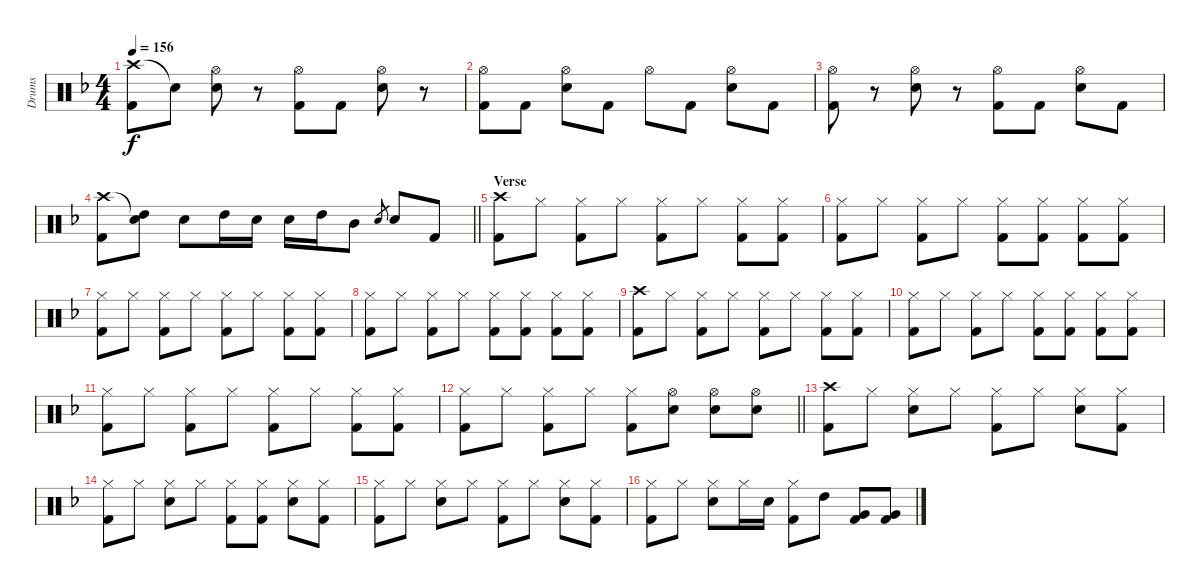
\track ("Drums" "Drums") {instrument percussion}
\staff {score}
\articulation defaults
\ts (4 4)
\tempo 156
\clef neutral
\ks f
("Crash high (hit)" "Kick (hit) 2").8{dy f} "Snare (hit)"{t}.8 ("Hi-Hat (open)" "Snare (hit) 2").8 r.8 ("Hi-Hat (open)" "Kick (hit) 2").8 "Kick (hit) 2".8 ("Hi-Hat (open)" "Snare (hit) 2").8 r.8 |
("Hi-Hat (open)" "Kick (hit) 2").8 "Kick (hit) 2".8 ("Hi-Hat (open)" "Snare (hit) 2").8 "Kick (hit) 2".8 "Hi-Hat (open)".8 "Kick (hit) 2".8 ("Hi-Hat (open)" "Snare (hit) 2").8 "Kick (hit) 2".8 |
("Hi-Hat (open)" "Kick (hit) 2").8 r.8 ("Hi-Hat (open)" "Snare (hit) 2").8 r.8 ("Hi-Hat (open)" "Kick (hit) 2").8 "Kick (hit) 2".8 ("Hi-Hat (open)" "Snare (hit) 2").8 "Kick (hit) 2".8 |
\barLineRight lightlight
("Crash high (hit)" "Kick (hit) 2").8 ("Snare (hit)"{t} "High Tom (hit)").8 "Snare (hit) 2".8 "High Tom (hit)".16 "Snare (hit) 2".16 "Snare (hit) 2".16 "High Tom (hit)".16 "Mid Tom (hit)".8 "Snare (hit) 2"{sl}.8{gr} "Snare (hit) 2".8 "Kick (hit) 2".8 |
\section ("" "Verse")
("Crash high (hit)" "Kick (hit) 2").8 "Hi-Hat (closed)".8 ("Hi-Hat (closed)" "Kick (hit) 2").8 "Hi-Hat (closed)".8 ("Hi-Hat (closed)" "Kick (hit) 2").8 "Hi-Hat (closed)".8 ("Hi-Hat (closed)" "Kick (hit) 2").8 ("Hi-Hat (closed)" "Kick (hit) 2").8 |
("Hi-Hat (closed)" "Kick (hit) 2").8 "Hi-Hat (closed)".8 ("Hi-Hat (closed)" "Kick (hit) 2").8 "Hi-Hat (closed)".8 ("Hi-Hat (closed)" "Kick (hit) 2").8 ("Hi-Hat (closed)" "Kick (hit) 2").8 ("Hi-Hat (closed)" "Kick (hit) 2").8 ("Hi-Hat (closed)" "Kick (hit) 2").8 |
("Hi-Hat (closed)" "Kick (hit) 2").8 "Hi-Hat (closed)".8 ("Hi-Hat (closed)" "Kick (hit) 2").8 "Hi-Hat (closed)".8 ("Hi-Hat (closed)" "Kick (hit) 2").8 "Hi-Hat (closed)".8 ("Hi-Hat (closed)" "Kick (hit) 2").8 ("Hi-Hat (closed)" "Kick (hit) 2").8 |
("Hi-Hat (closed)" "Kick (hit) 2").8 "Hi-Hat (closed)".8 ("Hi-Hat (closed)" "Kick (hit) 2").8 "Hi-Hat (closed)".8 ("Hi-Hat (closed)" "Kick (hit) 2").8 ("Hi-Hat (closed)" "Kick (hit) 2").8 ("Hi-Hat (closed)" "Kick (hit) 2").8 ("Hi-Hat (closed)" "Kick (hit) 2").8 |
("Crash high (hit)" "Kick (hit) 2").8 "Hi-Hat (closed)".8 ("Hi-Hat (closed)" "Kick (hit) 2").8 "Hi-Hat (closed)".8 ("Hi-Hat (closed)" "Kick (hit) 2").8 "Hi-Hat (closed)".8 ("Hi-Hat (closed)" "Kick (hit) 2").8 ("Hi-Hat (closed)" "Kick (hit) 2").8 |
("Hi-Hat (closed)" "Kick (hit) 2").8 "Hi-Hat (closed)".8 ("Hi-Hat (closed)" "Kick (hit) 2").8 "Hi-Hat (closed)".8 ("Hi-Hat (closed)" "Kick (hit) 2").8 ("Hi-Hat (closed)" "Kick (hit) 2").8 ("Hi-Hat (closed)" "Kick (hit) 2").8 ("Hi-Hat (closed)" "Kick (hit) 2").8 |
("Hi-Hat (closed)" "Kick (hit) 2").8 "Hi-Hat (closed)".8 ("Hi-Hat (closed)" "Kick (hit) 2").8 "Hi-Hat (closed)".8 ("Hi-Hat (closed)" "Kick (hit) 2").8 "Hi-Hat (closed)".8 ("Hi-Hat (closed)" "Kick (hit) 2").8 ("Hi-Hat (closed)" "Kick (hit) 2").8 |
\barLineRight lightlight
("Hi-Hat (closed)" "Kick (hit) 2").8 "Hi-Hat (closed)".8 ("Hi-Hat (closed)" "Kick (hit) 2").8 "Hi-Hat (closed)".8 ("Hi-Hat (closed)" "Kick (hit) 2").8 ("Hi-Hat (open)" "Snare (hit) 2").8 ("Hi-Hat (open)" "Snare (hit) 2").8 ("Hi-Hat (open)" "Snare (hit) 2").8 |
\section ("" " ")
("Crash high (hit)" "Kick (hit) 2").8 "Hi-Hat (closed)".8 ("Hi-Hat (closed)" "Snare (hit) 2").8 "Hi-Hat (closed)".8 ("Hi-Hat (closed)" "Kick (hit) 2").8 "Hi-Hat (closed)".8 ("Hi-Hat (closed)" "Snare (hit) 2").8 ("Hi-Hat (closed)" "Kick (hit) 2").8 |
("Hi-Hat (closed)" "Kick (hit) 2").8 "Hi-Hat (closed)".8 ("Hi-Hat (closed)" "Snare (hit) 2").8 "Hi-Hat (closed)".8 ("Hi-Hat (closed)" "Kick (hit) 2").8 ("Hi-Hat (closed)" "Kick (hit) 2").8 ("Hi-Hat (closed)" "Snare (hit) 2").8 ("Hi-Hat (closed)" "Kick (hit) 2").8 |
("Hi-Hat (closed)" "Kick (hit) 2").8 "Hi-Hat (closed)".8 ("Hi-Hat (closed)" "Snare (hit) 2").8 "Hi-Hat (closed)".8 ("Hi-Hat (closed)" "Kick (hit) 2").8 "Hi-Hat (closed)".8 ("Hi-Hat (closed)" "Snare (hit) 2").8 ("Hi-Hat (closed)" "Kick (hit) 2").8 |
("Hi-Hat (closed)" "Kick (hit) 2").8 "Hi-Hat (closed)".8 ("Hi-Hat (closed)" "Snare (hit) 2").8 "Hi-Hat (closed)".16 "Snare (hit) 2".16 ("Hi-Hat (closed)" "Kick (hit) 2").8 "High Tom (hit)".8 ("Very Low Tom (hit)" "Kick (hit) 2").8 ("Very Low Tom (hit)" "Kick (hit) 2").8
